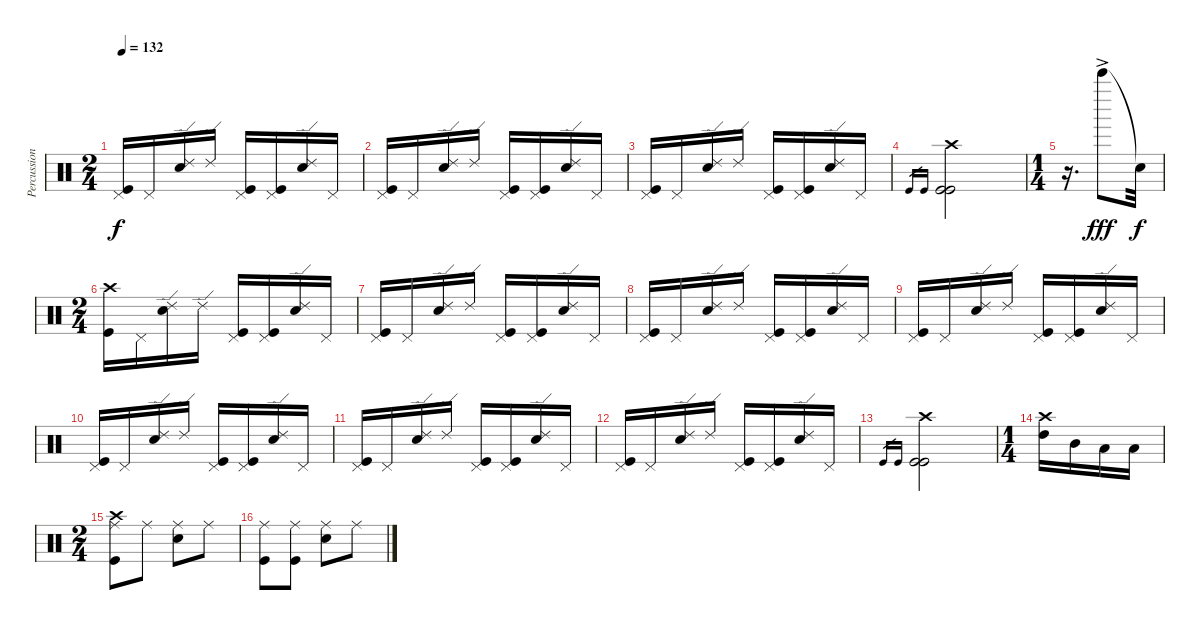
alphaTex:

\track ("Percussion" "Percussion") {instrument percussion}
\staff {score}
\articulation defaults
\ts (2 4)
\tempo 132
\clef neutral
\ks c
("Pedal Hi-Hat (hit)" "Kick (hit)").16{dy f} "Pedal Hi-Hat (hit)".16 ("Ride (edge) 2" "Electric Snare (hit)").16 "Ride (edge) 2".16 ("Pedal Hi-Hat (hit)" "Kick (hit)").16 ("Pedal Hi-Hat (hit)" "Kick (hit)").16 ("Ride (edge) 2" "Electric Snare (hit)").16 "Pedal Hi-Hat (hit)".16 |
("Pedal Hi-Hat (hit)" "Kick (hit)").16 "Pedal Hi-Hat (hit)".16 ("Ride (edge) 2" "Electric Snare (hit)").16 "Ride (edge) 2".16 ("Pedal Hi-Hat (hit)" "Kick (hit)").16 ("Pedal Hi-Hat (hit)" "Kick (hit)").16 ("Ride (edge) 2" "Electric Snare (hit)").16 "Pedal Hi-Hat (hit)".16 |
("Pedal Hi-Hat (hit)" "Kick (hit)").16 "Pedal Hi-Hat (hit)".16 ("Ride (edge) 2" "Electric Snare (hit)").16 "Ride (edge) 2".16 ("Pedal Hi-Hat (hit)" "Kick (hit)").16 ("Pedal Hi-Hat (hit)" "Kick (hit)").16 ("Ride (edge) 2" "Electric Snare (hit)").16 "Pedal Hi-Hat (hit)".16 |
"Kick (hit)".16{gr} "Kick (hit)".16{gr} ("Crash high (hit)" "Kick (hit)" "Kick (hit)").2 |
\ts (1 4)
r.16{d} "Bell Tree (hit)"{ac}.8{dy fff} "Snare (hit)"{t}.32{dy f} |
\ts (2 4)
("Crash high (hit)" "Kick (hit)").16 "Pedal Hi-Hat (hit)".16 ("Ride (edge) 2" "Electric Snare (hit)").16 "Ride (edge) 2".16 ("Pedal Hi-Hat (hit)" "Kick (hit)").16 ("Pedal Hi-Hat (hit)" "Kick (hit)").16 ("Ride (edge) 2" "Electric Snare (hit)").16 "Pedal Hi-Hat (hit)".16 |
("Pedal Hi-Hat (hit)" "Kick (hit)").16 "Pedal Hi-Hat (hit)".16 ("Ride (edge) 2" "Electric Snare (hit)").16 "Ride (edge) 2".16 ("Pedal Hi-Hat (hit)" "Kick (hit)").16 ("Pedal Hi-Hat (hit)" "Kick (hit)").16 ("Ride (edge) 2" "Electric Snare (hit)").16 "Pedal Hi-Hat (hit)".16 |
("Pedal Hi-Hat (hit)" "Kick (hit)").16 "Pedal Hi-Hat (hit)".16 ("Ride (edge) 2" "Electric Snare (hit)").16 "Ride (edge) 2".16 ("Pedal Hi-Hat (hit)" "Kick (hit)").16 ("Pedal Hi-Hat (hit)" "Kick (hit)").16 ("Ride (edge) 2" "Electric Snare (hit)").16 "Pedal Hi-Hat (hit)".16 |
("Pedal Hi-Hat (hit)" "Kick (hit)").16 "Pedal Hi-Hat (hit)".16 ("Ride (edge) 2" "Electric Snare (hit)").16 "Ride (edge) 2".16 ("Pedal Hi-Hat (hit)" "Kick (hit)").16 ("Pedal Hi-Hat (hit)" "Kick (hit)").16 ("Ride (edge) 2" "Electric Snare (hit)").16 "Pedal Hi-Hat (hit)".16 |
("Pedal Hi-Hat (hit)" "Kick (hit)").16 "Pedal Hi-Hat (hit)".16 ("Ride (edge) 2" "Electric Snare (hit)").16 "Ride (edge) 2".16 ("Pedal Hi-Hat (hit)" "Kick (hit)").16 ("Pedal Hi-Hat (hit)" "Kick (hit)").16 ("Ride (edge) 2" "Electric Snare (hit)").16 "Pedal Hi-Hat (hit)".16 |
("Pedal Hi-Hat (hit)" "Kick (hit)").16 "Pedal Hi-Hat (hit)".16 ("Ride (edge) 2" "Electric Snare (hit)").16 "Ride (edge) 2".16 ("Pedal Hi-Hat (hit)" "Kick (hit)").16 ("Pedal Hi-Hat (hit)" "Kick (hit)").16 ("Ride (edge) 2" "Electric Snare (hit)").16 "Pedal Hi-Hat (hit)".16 |
("Pedal Hi-Hat (hit)" "Kick (hit)").16 "Pedal Hi-Hat (hit)".16 ("Ride (edge) 2" "Electric Snare (hit)").16 "Ride (edge) 2".16 ("Pedal Hi-Hat (hit)" "Kick (hit)").16 ("Pedal Hi-Hat (hit)" "Kick (hit)").16 ("Ride (edge) 2" "Electric Snare (hit)").16 "Pedal Hi-Hat (hit)".16 |
"Kick (hit)".16{gr} "Kick (hit)".16{gr} ("Crash high (hit)" "Kick (hit)" "Kick (hit)").2 |
\ts (1 4)
("Crash high (hit)" "High Tom (hit)").16 "Mid Tom (hit)".16 "Low Tom (hit)".16 "Low Floor Tom (hit)".16 |
\ts (2 4)
("Crash high (hit)" "Ride (middle)" "Kick (hit)").8 "Ride (middle)".8 ("Ride (middle)" "Electric Snare (hit)").8 "Ride (middle)".8 |
("Ride (middle)" "Kick (hit)").8 ("Ride (middle)" "Kick (hit)").8 ("Ride (middle)" "Electric Snare (hit)").8 "Ride (middle)".8
